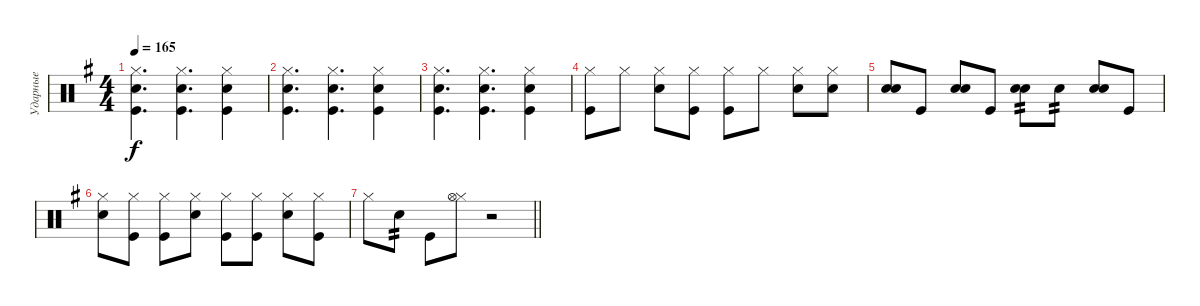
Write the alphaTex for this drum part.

\track ("Ударные" "Ударные") {instrument percussion}
\staff {score}
\articulation defaults
\ts (4 4)
\tempo 165
\clef neutral
\ks eminor
("Hi-Hat (closed)" "Electric Snare (hit)" "Kick (hit)").4{d dy f} ("Hi-Hat (closed)" "Electric Snare (hit)" "Kick (hit)").4{d} ("Hi-Hat (closed)" "Electric Snare (hit)" "Kick (hit)").4 |
("Hi-Hat (closed)" "Electric Snare (hit)" "Kick (hit)").4{d} ("Hi-Hat (closed)" "Electric Snare (hit)" "Kick (hit)").4{d} ("Hi-Hat (closed)" "Electric Snare (hit)" "Kick (hit)").4 |
("Hi-Hat (closed)" "Electric Snare (hit)" "Kick (hit)").4{d} ("Hi-Hat (closed)" "Electric Snare (hit)" "Kick (hit)").4{d} ("Hi-Hat (closed)" "Electric Snare (hit)" "Kick (hit)").4 |
("Hi-Hat (closed)" "Kick (hit)").8 "Hi-Hat (closed)".8 ("Hi-Hat (closed)" "Electric Snare (hit)").8 ("Hi-Hat (closed)" "Kick (hit)").8 ("Hi-Hat (closed)" "Kick (hit)").8 "Hi-Hat (closed)".8 ("Hi-Hat (closed)" "Electric Snare (hit)").8 ("Hi-Hat (closed)" "Electric Snare (hit)").8 |
("Electric Snare (hit)" "Electric Snare (hit)").8 "Kick (hit)".8 ("Electric Snare (hit)" "Electric Snare (hit)").8 "Kick (hit)".8 ("Electric Snare (hit)" "Electric Snare (hit)").8{tp 2} "Electric Snare (hit)".8{tp 2} ("Electric Snare (hit)" "Electric Snare (hit)").8 "Kick (hit)".8 |
("Hi-Hat (closed)" "Electric Snare (hit)").8 ("Hi-Hat (closed)" "Kick (hit)").8 ("Hi-Hat (closed)" "Kick (hit)").8 ("Hi-Hat (closed)" "Electric Snare (hit)").8 ("Hi-Hat (closed)" "Kick (hit)").8 ("Hi-Hat (closed)" "Kick (hit)").8 ("Hi-Hat (closed)" "Electric Snare (hit)").8 ("Hi-Hat (closed)" "Kick (hit)").8 |
\barLineRight lightlight "Hi-Hat (closed)".8 "Electric Snare (hit)".8{tp 2} "Kick (hit)".8
("Hi-Hat (closed)" "Hi-Hat (open)").8 r.2
